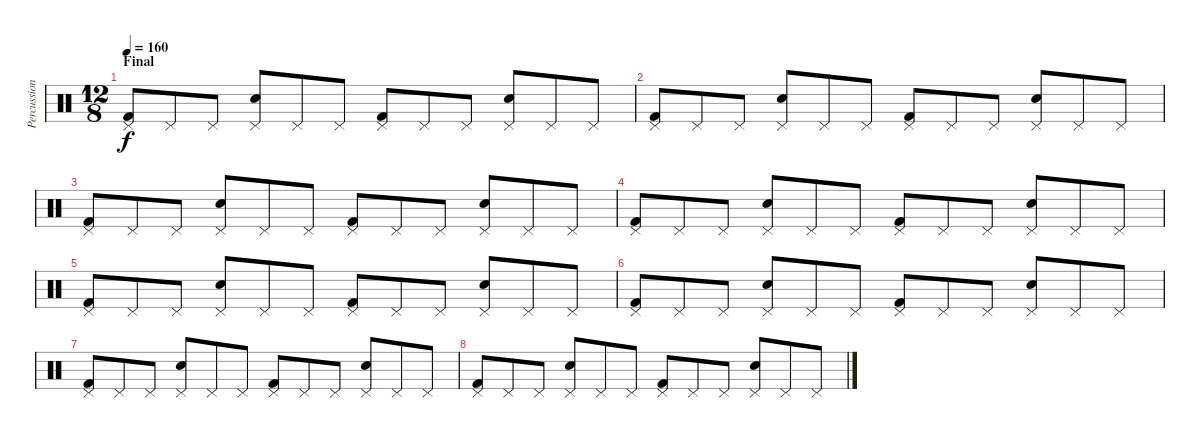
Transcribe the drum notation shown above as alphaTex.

\track ("Percussions" "Percussion") {instrument percussion}
\staff {score}
\articulation defaults
\ts (12 8)
\section ("" "Final")
\tempo 160
\clef neutral
\ks c
("Pedal Hi-Hat (hit)" "Kick (hit) 2").8{dy f} "Pedal Hi-Hat (hit)".8 "Pedal Hi-Hat (hit)".8 ("Pedal Hi-Hat (hit)" "Electric Snare (hit)").8 "Pedal Hi-Hat (hit)".8 "Pedal Hi-Hat (hit)".8 ("Pedal Hi-Hat (hit)" "Kick (hit) 2").8 "Pedal Hi-Hat (hit)".8 "Pedal Hi-Hat (hit)".8 ("Pedal Hi-Hat (hit)" "Electric Snare (hit)").8 "Pedal Hi-Hat (hit)".8 "Pedal Hi-Hat (hit)".8 |
("Pedal Hi-Hat (hit)" "Kick (hit) 2").8 "Pedal Hi-Hat (hit)".8 "Pedal Hi-Hat (hit)".8 ("Pedal Hi-Hat (hit)" "Electric Snare (hit)").8 "Pedal Hi-Hat (hit)".8 "Pedal Hi-Hat (hit)".8 ("Pedal Hi-Hat (hit)" "Kick (hit) 2").8 "Pedal Hi-Hat (hit)".8 "Pedal Hi-Hat (hit)".8 ("Pedal Hi-Hat (hit)" "Electric Snare (hit)").8 "Pedal Hi-Hat (hit)".8 "Pedal Hi-Hat (hit)".8 |
("Pedal Hi-Hat (hit)" "Kick (hit) 2").8 "Pedal Hi-Hat (hit)".8 "Pedal Hi-Hat (hit)".8 ("Pedal Hi-Hat (hit)" "Electric Snare (hit)").8 "Pedal Hi-Hat (hit)".8 "Pedal Hi-Hat (hit)".8 ("Pedal Hi-Hat (hit)" "Kick (hit) 2").8 "Pedal Hi-Hat (hit)".8 "Pedal Hi-Hat (hit)".8 ("Pedal Hi-Hat (hit)" "Electric Snare (hit)").8 "Pedal Hi-Hat (hit)".8 "Pedal Hi-Hat (hit)".8 |
("Pedal Hi-Hat (hit)" "Kick (hit) 2").8 "Pedal Hi-Hat (hit)".8 "Pedal Hi-Hat (hit)".8 ("Pedal Hi-Hat (hit)" "Electric Snare (hit)").8 "Pedal Hi-Hat (hit)".8 "Pedal Hi-Hat (hit)".8 ("Pedal Hi-Hat (hit)" "Kick (hit) 2").8 "Pedal Hi-Hat (hit)".8 "Pedal Hi-Hat (hit)".8 ("Pedal Hi-Hat (hit)" "Electric Snare (hit)").8 "Pedal Hi-Hat (hit)".8 "Pedal Hi-Hat (hit)".8 |
("Pedal Hi-Hat (hit)" "Kick (hit) 2").8{volume 10} "Pedal Hi-Hat (hit)".8 "Pedal Hi-Hat (hit)".8 ("Pedal Hi-Hat (hit)" "Electric Snare (hit)").8 "Pedal Hi-Hat (hit)".8 "Pedal Hi-Hat (hit)".8 ("Pedal Hi-Hat (hit)" "Kick (hit) 2").8 "Pedal Hi-Hat (hit)".8 "Pedal Hi-Hat (hit)".8 ("Pedal Hi-Hat (hit)" "Electric Snare (hit)").8 "Pedal Hi-Hat (hit)".8 "Pedal Hi-Hat (hit)".8 |
("Pedal Hi-Hat (hit)" "Kick (hit) 2").8{volume 7} "Pedal Hi-Hat (hit)".8 "Pedal Hi-Hat (hit)".8 ("Pedal Hi-Hat (hit)" "Electric Snare (hit)").8 "Pedal Hi-Hat (hit)".8 "Pedal Hi-Hat (hit)".8 ("Pedal Hi-Hat (hit)" "Kick (hit) 2").8 "Pedal Hi-Hat (hit)".8 "Pedal Hi-Hat (hit)".8 ("Pedal Hi-Hat (hit)" "Electric Snare (hit)").8 "Pedal Hi-Hat (hit)".8 "Pedal Hi-Hat (hit)".8 |
("Pedal Hi-Hat (hit)" "Kick (hit) 2").8{volume 3} "Pedal Hi-Hat (hit)".8 "Pedal Hi-Hat (hit)".8 ("Pedal Hi-Hat (hit)" "Electric Snare (hit)").8 "Pedal Hi-Hat (hit)".8 "Pedal Hi-Hat (hit)".8 ("Pedal Hi-Hat (hit)" "Kick (hit) 2").8 "Pedal Hi-Hat (hit)".8 "Pedal Hi-Hat (hit)".8 ("Pedal Hi-Hat (hit)" "Electric Snare (hit)").8 "Pedal Hi-Hat (hit)".8 "Pedal Hi-Hat (hit)".8 |
("Pedal Hi-Hat (hit)" "Kick (hit) 2").8{volume 0} "Pedal Hi-Hat (hit)".8 "Pedal Hi-Hat (hit)".8 ("Pedal Hi-Hat (hit)" "Electric Snare (hit)").8 "Pedal Hi-Hat (hit)".8 "Pedal Hi-Hat (hit)".8 ("Pedal Hi-Hat (hit)" "Kick (hit) 2").8 "Pedal Hi-Hat (hit)".8 "Pedal Hi-Hat (hit)".8 ("Pedal Hi-Hat (hit)" "Electric Snare (hit)").8 "Pedal Hi-Hat (hit)".8 "Pedal Hi-Hat (hit)".8
